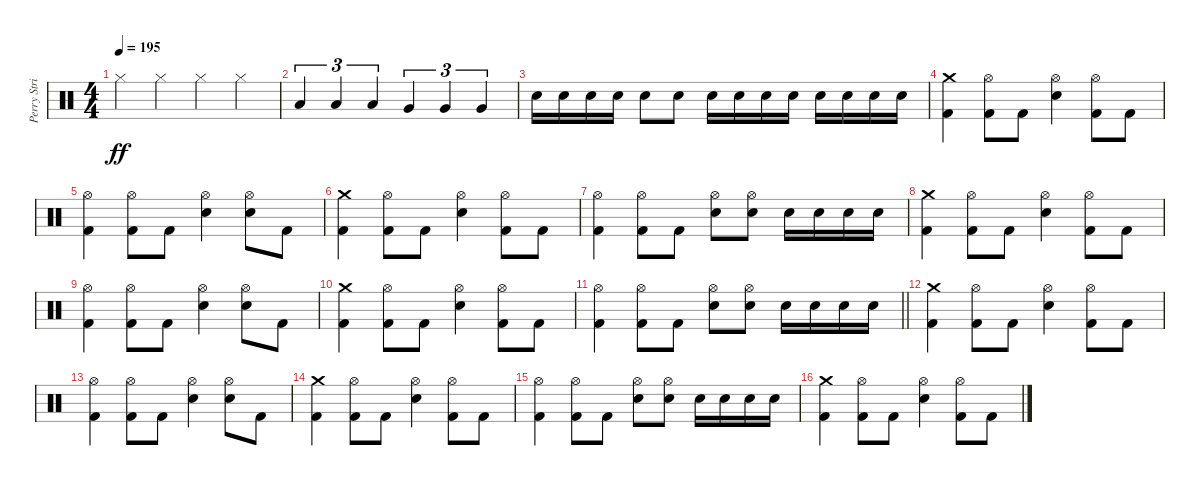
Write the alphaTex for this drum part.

\track ("Perry Strickland" "Perry Stri") {instrument percussion}
\staff {score}
\articulation defaults
\ts (4 4)
\tempo 195
\clef neutral
\ks c "Hi-Hat (closed)".4{dy ff} "Hi-Hat (closed)".4 "Hi-Hat (closed)".4 "Hi-Hat (closed)".4
|
"Low Tom (hit)".4{tu (3 2)} "Low Tom (hit)".4{tu (3 2)} "Low Tom (hit)".4{tu (3 2)} "Very Low Tom (hit)".4{tu (3 2)} "Very Low Tom (hit)".4{tu (3 2)} "Very Low Tom (hit)".4{tu (3 2)} |
"Snare (hit) 2".16 "Snare (hit) 2".16 "Snare (hit) 2".16 "Snare (hit) 2".16 "Snare (hit) 2".8 "Snare (hit) 2".8 "Snare (hit) 2".16 "Snare (hit) 2".16 "Snare (hit) 2".16 "Snare (hit) 2".16 "Snare (hit) 2".16 "Snare (hit) 2".16 "Snare (hit) 2".16 "Snare (hit) 2".16 |
("Crash medium (hit)" "Kick (hit) 2").4 ("Hi-Hat (open)" "Kick (hit) 2").8 "Kick (hit) 2".8 ("Hi-Hat (open)" "Snare (hit) 2").4 ("Hi-Hat (open)" "Kick (hit) 2").8 "Kick (hit) 2".8 |
("Hi-Hat (open)" "Kick (hit) 2").4 ("Hi-Hat (open)" "Kick (hit) 2").8 "Kick (hit) 2".8 ("Hi-Hat (open)" "Snare (hit) 2").4 ("Hi-Hat (open)" "Snare (hit) 2").8 "Kick (hit) 2".8 |
("Crash medium (hit)" "Kick (hit) 2").4 ("Hi-Hat (open)" "Kick (hit) 2").8 "Kick (hit) 2".8 ("Hi-Hat (open)" "Snare (hit) 2").4 ("Hi-Hat (open)" "Kick (hit) 2").8 "Kick (hit) 2".8 |
("Hi-Hat (open)" "Kick (hit) 2").4 ("Hi-Hat (open)" "Kick (hit) 2").8 "Kick (hit) 2".8 ("Hi-Hat (open)" "Snare (hit) 2").8 ("Hi-Hat (open)" "Snare (hit) 2").8 "Snare (hit) 2".16 "Snare (hit) 2".16 "Snare (hit) 2".16 "Snare (hit) 2".16 |
("Crash medium (hit)" "Kick (hit) 2").4 ("Hi-Hat (open)" "Kick (hit) 2").8 "Kick (hit) 2".8 ("Hi-Hat (open)" "Snare (hit) 2").4 ("Hi-Hat (open)" "Kick (hit) 2").8 "Kick (hit) 2".8 |
("Hi-Hat (open)" "Kick (hit) 2").4 ("Hi-Hat (open)" "Kick (hit) 2").8 "Kick (hit) 2".8 ("Hi-Hat (open)" "Snare (hit) 2").4 ("Hi-Hat (open)" "Snare (hit) 2").8 "Kick (hit) 2".8 |
("Crash medium (hit)" "Kick (hit) 2").4 ("Hi-Hat (open)" "Kick (hit) 2").8 "Kick (hit) 2".8 ("Hi-Hat (open)" "Snare (hit) 2").4 ("Hi-Hat (open)" "Kick (hit) 2").8 "Kick (hit) 2".8 |
\barLineRight lightlight
("Hi-Hat (open)" "Kick (hit) 2").4 ("Hi-Hat (open)" "Kick (hit) 2").8 "Kick (hit) 2".8 ("Hi-Hat (open)" "Snare (hit) 2").8 ("Hi-Hat (open)" "Snare (hit) 2").8 "Snare (hit) 2".16 "Snare (hit) 2".16 "Snare (hit) 2".16 "Snare (hit) 2".16 |
("Crash medium (hit)" "Kick (hit) 2").4 ("Hi-Hat (open)" "Kick (hit) 2").8 "Kick (hit) 2".8 ("Hi-Hat (open)" "Snare (hit) 2").4 ("Hi-Hat (open)" "Kick (hit) 2").8 "Kick (hit) 2".8 |
("Hi-Hat (open)" "Kick (hit) 2").4 ("Hi-Hat (open)" "Kick (hit) 2").8 "Kick (hit) 2".8 ("Hi-Hat (open)" "Snare (hit) 2").4 ("Hi-Hat (open)" "Snare (hit) 2").8 "Kick (hit) 2".8 |
("Crash medium (hit)" "Kick (hit) 2").4 ("Hi-Hat (open)" "Kick (hit) 2").8 "Kick (hit) 2".8 ("Hi-Hat (open)" "Snare (hit) 2").4 ("Hi-Hat (open)" "Kick (hit) 2").8 "Kick (hit) 2".8 |
("Hi-Hat (open)" "Kick (hit) 2").4 ("Hi-Hat (open)" "Kick (hit) 2").8 "Kick (hit) 2".8 ("Hi-Hat (open)" "Snare (hit) 2").8 ("Hi-Hat (open)" "Snare (hit) 2").8 "Snare (hit) 2".16 "Snare (hit) 2".16 "Snare (hit) 2".16 "Snare (hit) 2".16 |
("Crash medium (hit)" "Kick (hit) 2").4 ("Hi-Hat (open)" "Kick (hit) 2").8 "Kick (hit) 2".8 ("Hi-Hat (open)" "Snare (hit) 2").4 ("Hi-Hat (open)" "Kick (hit) 2").8 "Kick (hit) 2".8
